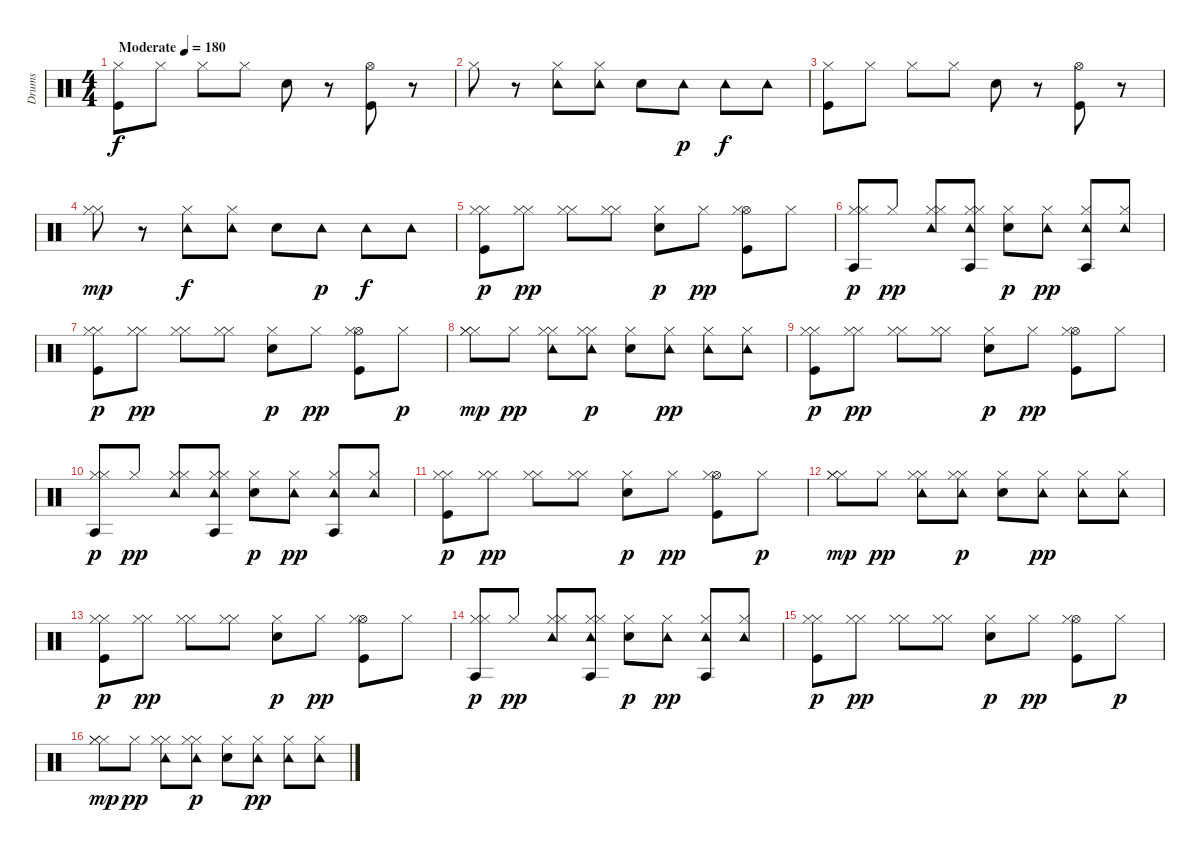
\track ("Drums" "Drums") {instrument percussion}
\staff {score}
\articulation defaults
\ts (4 4)
\tempo (180 "Moderate")
\clef neutral
\ks c
("Hi-Hat (closed)" "Kick (hit)").8{dy f} "Hi-Hat (closed)".8 "Hi-Hat (closed)".8 "Hi-Hat (closed)".8 "Electric Snare (hit)".8 r.8 ("Hi-Hat (open)" "Kick (hit)").8 r.8 |
"Hi-Hat (closed)".8 r.8 ("Tambourine (hit)" "Hi-Hat (closed)").8 ("Tambourine (hit)" "Hi-Hat (closed)").8 "Electric Snare (hit)".8 "Tambourine (hit)".8{dy p} "Tambourine (hit)".8{dy f} "Tambourine (hit)".8 |
("Hi-Hat (closed)" "Kick (hit)").8 "Hi-Hat (closed)".8 "Hi-Hat (closed)".8 "Hi-Hat (closed)".8 "Electric Snare (hit)".8 r.8 ("Hi-Hat (open)" "Kick (hit)").8 r.8 |
("Hi-Hat (closed)" "Hi-Hat (closed)").8{dy mp} r.8 ("Tambourine (hit)" "Hi-Hat (closed)").8{dy f} ("Tambourine (hit)" "Hi-Hat (closed)").8 "Electric Snare (hit)".8 "Tambourine (hit)".8{dy p} "Tambourine (hit)".8{dy f} "Tambourine (hit)".8 |
("Hi-Hat (closed)" "Hi-Hat (closed)" "Kick (hit)").8{dy p} ("Hi-Hat (closed)" "Hi-Hat (closed)").8{dy pp} ("Hi-Hat (closed)" "Hi-Hat (closed)").8 ("Hi-Hat (closed)" "Hi-Hat (closed)").8 ("Electric Snare (hit)" "Hi-Hat (closed)").8{dy p} "Hi-Hat (closed)".8{dy pp} ("Hi-Hat (open)" "Hi-Hat (closed)" "Kick (hit)").8 "Hi-Hat (closed)".8 |
("Agogo tow (hit)" "Hi-Hat (closed)" "Hi-Hat (closed)").8{dy p} "Hi-Hat (closed)".8{dy pp} ("Tambourine (hit)" "Hi-Hat (closed)" "Hi-Hat (closed)").8 ("Tambourine (hit)" "Hi-Hat (closed)" "Hi-Hat (closed)" "Agogo tow (hit)").8 ("Electric Snare (hit)" "Hi-Hat (closed)").8{dy p} ("Tambourine (hit)" "Hi-Hat (closed)").8{dy pp} ("Tambourine (hit)" "Hi-Hat (closed)" "Agogo tow (hit)").8 ("Tambourine (hit)" "Hi-Hat (closed)").8 |
("Hi-Hat (closed)" "Hi-Hat (closed)" "Kick (hit)").8{dy p} ("Hi-Hat (closed)" "Hi-Hat (closed)").8{dy pp} ("Hi-Hat (closed)" "Hi-Hat (closed)").8 ("Hi-Hat (closed)" "Hi-Hat (closed)").8 ("Electric Snare (hit)" "Hi-Hat (closed)").8{dy p} "Hi-Hat (closed)".8{dy pp} ("Hi-Hat (open)" "Hi-Hat (closed)" "Kick (hit)").8 "Hi-Hat (closed)".8{dy p} |
("Hi-Hat (closed)" "Hi-Hat (closed)" "Hi-Hat (closed)").8{dy mp} "Hi-Hat (closed)".8{dy pp} ("Tambourine (hit)" "Hi-Hat (closed)" "Hi-Hat (closed)").8 ("Tambourine (hit)" "Hi-Hat (closed)" "Hi-Hat (closed)").8{dy p} ("Electric Snare (hit)" "Hi-Hat (closed)").8 ("Tambourine (hit)" "Hi-Hat (closed)").8{dy pp} ("Tambourine (hit)" "Hi-Hat (closed)").8 ("Tambourine (hit)" "Hi-Hat (closed)").8 |
("Hi-Hat (closed)" "Hi-Hat (closed)" "Kick (hit)").8{dy p} ("Hi-Hat (closed)" "Hi-Hat (closed)").8{dy pp} ("Hi-Hat (closed)" "Hi-Hat (closed)").8 ("Hi-Hat (closed)" "Hi-Hat (closed)").8 ("Electric Snare (hit)" "Hi-Hat (closed)").8{dy p} "Hi-Hat (closed)".8{dy pp} ("Hi-Hat (open)" "Hi-Hat (closed)" "Kick (hit)").8 "Hi-Hat (closed)".8 |
("Agogo tow (hit)" "Hi-Hat (closed)" "Hi-Hat (closed)").8{dy p} "Hi-Hat (closed)".8{dy pp} ("Tambourine (hit)" "Hi-Hat (closed)" "Hi-Hat (closed)").8 ("Tambourine (hit)" "Hi-Hat (closed)" "Hi-Hat (closed)" "Agogo tow (hit)").8 ("Electric Snare (hit)" "Hi-Hat (closed)").8{dy p} ("Tambourine (hit)" "Hi-Hat (closed)").8{dy pp} ("Tambourine (hit)" "Hi-Hat (closed)" "Agogo tow (hit)").8 ("Tambourine (hit)" "Hi-Hat (closed)").8 |
("Hi-Hat (closed)" "Hi-Hat (closed)" "Kick (hit)").8{dy p} ("Hi-Hat (closed)" "Hi-Hat (closed)").8{dy pp} ("Hi-Hat (closed)" "Hi-Hat (closed)").8 ("Hi-Hat (closed)" "Hi-Hat (closed)").8 ("Electric Snare (hit)" "Hi-Hat (closed)").8{dy p} "Hi-Hat (closed)".8{dy pp} ("Hi-Hat (open)" "Hi-Hat (closed)" "Kick (hit)").8 "Hi-Hat (closed)".8{dy p} |
("Hi-Hat (closed)" "Hi-Hat (closed)" "Hi-Hat (closed)").8{dy mp} "Hi-Hat (closed)".8{dy pp} ("Tambourine (hit)" "Hi-Hat (closed)" "Hi-Hat (closed)").8 ("Tambourine (hit)" "Hi-Hat (closed)" "Hi-Hat (closed)").8{dy p} ("Electric Snare (hit)" "Hi-Hat (closed)").8 ("Tambourine (hit)" "Hi-Hat (closed)").8{dy pp} ("Tambourine (hit)" "Hi-Hat (closed)").8 ("Tambourine (hit)" "Hi-Hat (closed)").8 |
("Hi-Hat (closed)" "Hi-Hat (closed)" "Kick (hit)").8{dy p} ("Hi-Hat (closed)" "Hi-Hat (closed)").8{dy pp} ("Hi-Hat (closed)" "Hi-Hat (closed)").8 ("Hi-Hat (closed)" "Hi-Hat (closed)").8 ("Electric Snare (hit)" "Hi-Hat (closed)").8{dy p} "Hi-Hat (closed)".8{dy pp} ("Hi-Hat (open)" "Hi-Hat (closed)" "Kick (hit)").8 "Hi-Hat (closed)".8 |
("Agogo tow (hit)" "Hi-Hat (closed)" "Hi-Hat (closed)").8{dy p} "Hi-Hat (closed)".8{dy pp} ("Tambourine (hit)" "Hi-Hat (closed)" "Hi-Hat (closed)").8 ("Tambourine (hit)" "Hi-Hat (closed)" "Hi-Hat (closed)" "Agogo tow (hit)").8 ("Electric Snare (hit)" "Hi-Hat (closed)").8{dy p} ("Tambourine (hit)" "Hi-Hat (closed)").8{dy pp} ("Tambourine (hit)" "Hi-Hat (closed)" "Agogo tow (hit)").8 ("Tambourine (hit)" "Hi-Hat (closed)").8 |
("Hi-Hat (closed)" "Hi-Hat (closed)" "Kick (hit)").8{dy p} ("Hi-Hat (closed)" "Hi-Hat (closed)").8{dy pp} ("Hi-Hat (closed)" "Hi-Hat (closed)").8 ("Hi-Hat (closed)" "Hi-Hat (closed)").8 ("Electric Snare (hit)" "Hi-Hat (closed)").8{dy p} "Hi-Hat (closed)".8{dy pp} ("Hi-Hat (open)" "Hi-Hat (closed)" "Kick (hit)").8 "Hi-Hat (closed)".8{dy p} |
("Hi-Hat (closed)" "Hi-Hat (closed)" "Hi-Hat (closed)").8{dy mp} "Hi-Hat (closed)".8{dy pp} ("Tambourine (hit)" "Hi-Hat (closed)" "Hi-Hat (closed)").8 ("Tambourine (hit)" "Hi-Hat (closed)" "Hi-Hat (closed)").8{dy p} ("Electric Snare (hit)" "Hi-Hat (closed)").8 ("Tambourine (hit)" "Hi-Hat (closed)").8{dy pp} ("Tambourine (hit)" "Hi-Hat (closed)").8 ("Tambourine (hit)" "Hi-Hat (closed)").8
